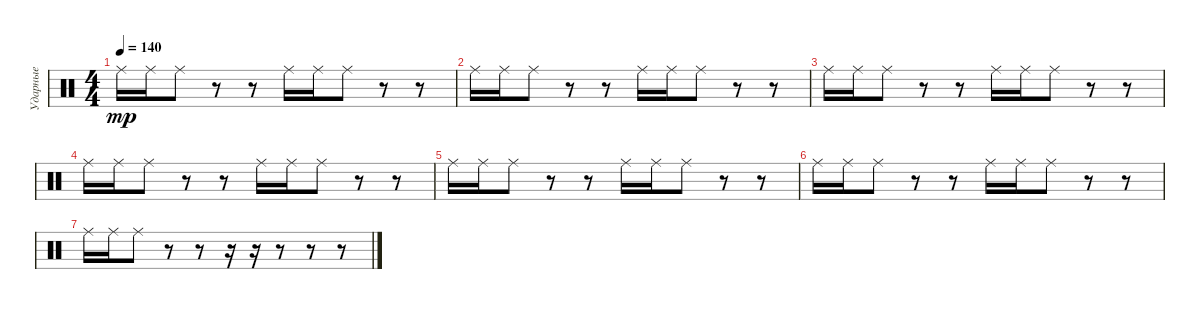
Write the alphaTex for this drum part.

\track ("Ударные" "Ударные") {instrument percussion}
\staff {score}
\articulation defaults
\ts (4 4)
\tempo 140
\clef neutral
\ks c "Ride (middle)".16{dy mp} "Ride (middle)".16 "Ride (middle)".8
r.8 r.8 "Ride (middle)".16 "Ride (middle)".16 "Ride (middle)".8 r.8 r.8 |
"Ride (middle)".16 "Ride (middle)".16 "Ride (middle)".8 r.8 r.8 "Ride (middle)".16 "Ride (middle)".16 "Ride (middle)".8 r.8 r.8 |
"Ride (middle)".16 "Ride (middle)".16 "Ride (middle)".8 r.8 r.8 "Ride (middle)".16 "Ride (middle)".16 "Ride (middle)".8 r.8 r.8 |
"Ride (middle)".16 "Ride (middle)".16 "Ride (middle)".8 r.8 r.8 "Ride (middle)".16 "Ride (middle)".16 "Ride (middle)".8 r.8 r.8 |
"Ride (middle)".16 "Ride (middle)".16 "Ride (middle)".8 r.8 r.8 "Ride (middle)".16 "Ride (middle)".16 "Ride (middle)".8 r.8 r.8 |
"Ride (middle)".16 "Ride (middle)".16 "Ride (middle)".8 r.8 r.8 "Ride (middle)".16 "Ride (middle)".16 "Ride (middle)".8 r.8 r.8 |
"Ride (middle)".16 "Ride (middle)".16 "Ride (middle)".8 r.8 r.8 r.16 r.16 r.8 r.8 r.8
